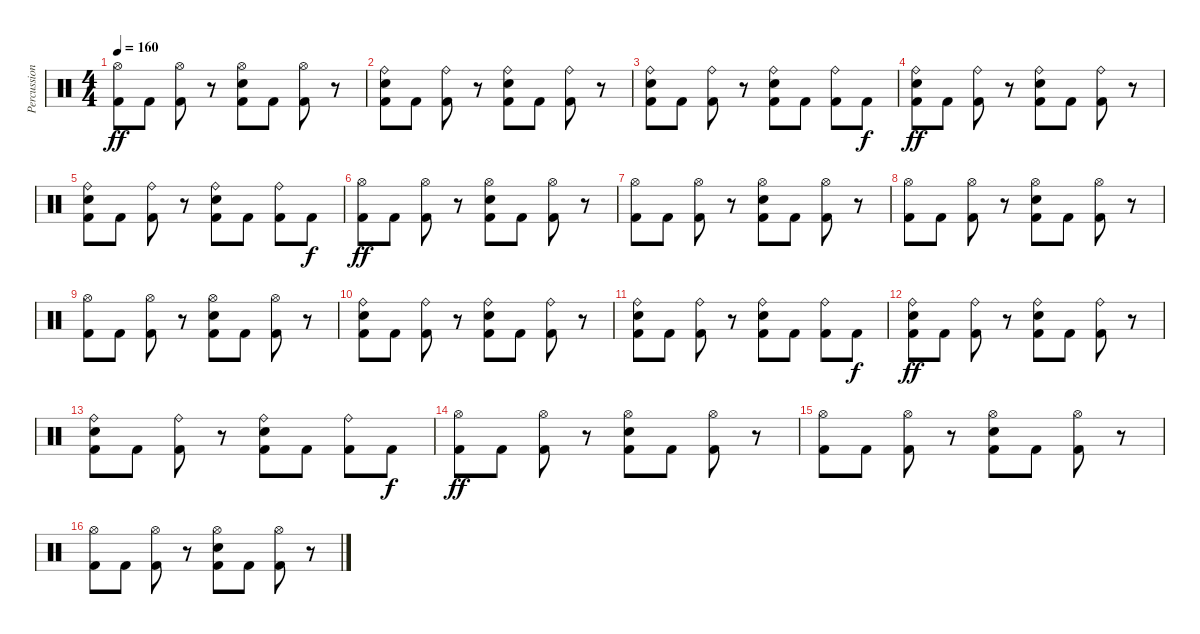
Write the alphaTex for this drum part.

\track ("Percussion" "Percussion") {instrument percussion}
\staff {score}
\articulation defaults
\ts (4 4)
\tempo 160
\clef neutral
\ks c
("Hi-Hat (open)" "Kick (hit) 2").8{dy ff} "Kick (hit) 2".8 ("Hi-Hat (open)" "Kick (hit) 2").8 r.8 ("Hi-Hat (open)" "Electric Snare (hit)" "Kick (hit) 2").8 "Kick (hit) 2".8 ("Hi-Hat (open)" "Kick (hit) 2").8 r.8 |
("Ride (bell)" "Electric Snare (hit)" "Kick (hit) 2").8 "Kick (hit) 2".8 ("Ride (bell)" "Kick (hit) 2").8 r.8 ("Ride (bell)" "Electric Snare (hit)" "Kick (hit) 2").8 "Kick (hit) 2".8 ("Ride (bell)" "Kick (hit) 2").8 r.8 |
("Ride (bell)" "Electric Snare (hit)" "Kick (hit) 2").8 "Kick (hit) 2".8 ("Ride (bell)" "Kick (hit) 2").8 r.8 ("Ride (bell)" "Electric Snare (hit)" "Kick (hit) 2").8 "Kick (hit) 2".8 ("Ride (bell)" "Kick (hit) 2").8 "Kick (hit) 2".8{dy f} |
("Ride (bell)" "Electric Snare (hit)" "Kick (hit) 2").8{dy ff} "Kick (hit) 2".8 ("Ride (bell)" "Kick (hit) 2").8 r.8 ("Ride (bell)" "Electric Snare (hit)" "Kick (hit) 2").8 "Kick (hit) 2".8 ("Ride (bell)" "Kick (hit) 2").8 r.8 |
("Ride (bell)" "Electric Snare (hit)" "Kick (hit) 2").8 "Kick (hit) 2".8 ("Ride (bell)" "Kick (hit) 2").8 r.8 ("Ride (bell)" "Electric Snare (hit)" "Kick (hit) 2").8 "Kick (hit) 2".8 ("Ride (bell)" "Kick (hit) 2").8 "Kick (hit) 2".8{dy f} |
("Hi-Hat (open)" "Kick (hit) 2").8{dy ff} "Kick (hit) 2".8 ("Hi-Hat (open)" "Kick (hit) 2").8 r.8 ("Hi-Hat (open)" "Electric Snare (hit)" "Kick (hit) 2").8 "Kick (hit) 2".8 ("Hi-Hat (open)" "Kick (hit) 2").8 r.8 |
("Hi-Hat (open)" "Kick (hit) 2").8 "Kick (hit) 2".8 ("Hi-Hat (open)" "Kick (hit) 2").8 r.8 ("Hi-Hat (open)" "Electric Snare (hit)" "Kick (hit) 2").8 "Kick (hit) 2".8 ("Hi-Hat (open)" "Kick (hit) 2").8 r.8 |
("Hi-Hat (open)" "Kick (hit) 2").8 "Kick (hit) 2".8 ("Hi-Hat (open)" "Kick (hit) 2").8 r.8 ("Hi-Hat (open)" "Electric Snare (hit)" "Kick (hit) 2").8 "Kick (hit) 2".8 ("Hi-Hat (open)" "Kick (hit) 2").8 r.8 |
("Hi-Hat (open)" "Kick (hit) 2").8 "Kick (hit) 2".8 ("Hi-Hat (open)" "Kick (hit) 2").8 r.8 ("Hi-Hat (open)" "Electric Snare (hit)" "Kick (hit) 2").8 "Kick (hit) 2".8 ("Hi-Hat (open)" "Kick (hit) 2").8 r.8 |
("Ride (bell)" "Electric Snare (hit)" "Kick (hit) 2").8 "Kick (hit) 2".8 ("Ride (bell)" "Kick (hit) 2").8 r.8 ("Ride (bell)" "Electric Snare (hit)" "Kick (hit) 2").8 "Kick (hit) 2".8 ("Ride (bell)" "Kick (hit) 2").8 r.8 |
("Ride (bell)" "Electric Snare (hit)" "Kick (hit) 2").8 "Kick (hit) 2".8 ("Ride (bell)" "Kick (hit) 2").8 r.8 ("Ride (bell)" "Electric Snare (hit)" "Kick (hit) 2").8 "Kick (hit) 2".8 ("Ride (bell)" "Kick (hit) 2").8 "Kick (hit) 2".8{dy f} |
("Ride (bell)" "Electric Snare (hit)" "Kick (hit) 2").8{dy ff} "Kick (hit) 2".8 ("Ride (bell)" "Kick (hit) 2").8 r.8 ("Ride (bell)" "Electric Snare (hit)" "Kick (hit) 2").8 "Kick (hit) 2".8 ("Ride (bell)" "Kick (hit) 2").8 r.8 |
("Ride (bell)" "Electric Snare (hit)" "Kick (hit) 2").8 "Kick (hit) 2".8 ("Ride (bell)" "Kick (hit) 2").8 r.8 ("Ride (bell)" "Electric Snare (hit)" "Kick (hit) 2").8 "Kick (hit) 2".8 ("Ride (bell)" "Kick (hit) 2").8 "Kick (hit) 2".8{dy f} |
("Hi-Hat (open)" "Kick (hit) 2").8{dy ff} "Kick (hit) 2".8 ("Hi-Hat (open)" "Kick (hit) 2").8 r.8 ("Hi-Hat (open)" "Electric Snare (hit)" "Kick (hit) 2").8 "Kick (hit) 2".8 ("Hi-Hat (open)" "Kick (hit) 2").8 r.8 |
("Hi-Hat (open)" "Kick (hit) 2").8 "Kick (hit) 2".8 ("Hi-Hat (open)" "Kick (hit) 2").8 r.8 ("Hi-Hat (open)" "Electric Snare (hit)" "Kick (hit) 2").8 "Kick (hit) 2".8 ("Hi-Hat (open)" "Kick (hit) 2").8 r.8 |
("Hi-Hat (open)" "Kick (hit) 2").8 "Kick (hit) 2".8 ("Hi-Hat (open)" "Kick (hit) 2").8 r.8 ("Hi-Hat (open)" "Electric Snare (hit)" "Kick (hit) 2").8 "Kick (hit) 2".8 ("Hi-Hat (open)" "Kick (hit) 2").8 r.8
